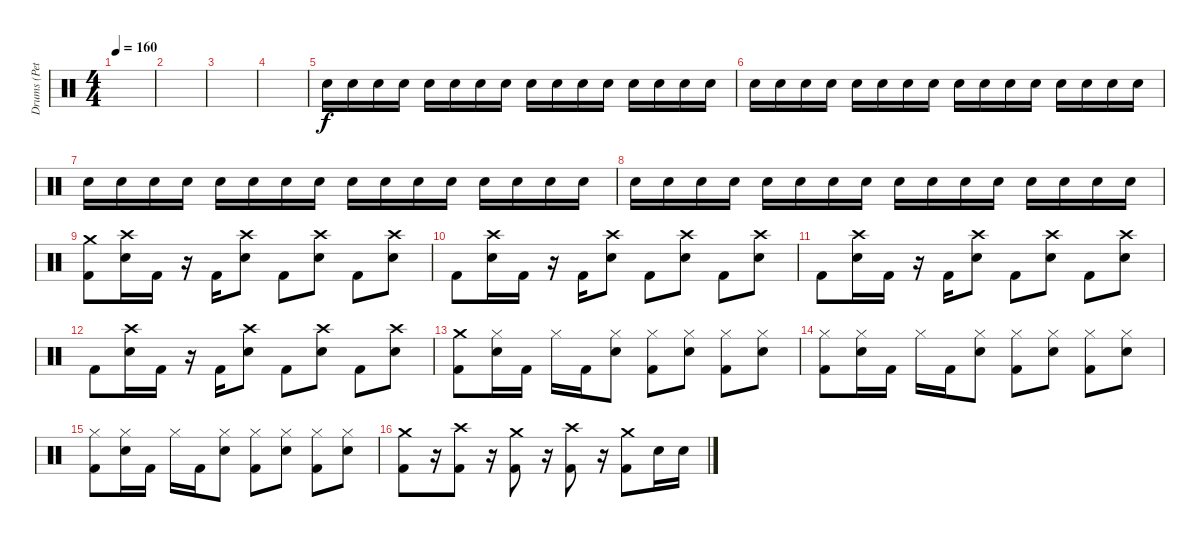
\track ("Drums (Pete)" "Drums (Pet") {instrument percussion}
\staff {score}
\articulation defaults
\ts (4 4)
\tempo 160
\clef neutral
\ks c
|
|
|
|
"Snare (hit) 2".16 "Snare (hit) 2".16 "Snare (hit) 2".16 "Snare (hit) 2".16 "Snare (hit) 2".16 "Snare (hit) 2".16 "Snare (hit) 2".16 "Snare (hit) 2".16 "Snare (hit) 2".16 "Snare (hit) 2".16 "Snare (hit) 2".16 "Snare (hit) 2".16 "Snare (hit) 2".16 "Snare (hit) 2".16 "Snare (hit) 2".16 "Snare (hit) 2".16 |
"Snare (hit) 2".16 "Snare (hit) 2".16 "Snare (hit) 2".16 "Snare (hit) 2".16 "Snare (hit) 2".16 "Snare (hit) 2".16 "Snare (hit) 2".16 "Snare (hit) 2".16 "Snare (hit) 2".16 "Snare (hit) 2".16 "Snare (hit) 2".16 "Snare (hit) 2".16 "Snare (hit) 2".16 "Snare (hit) 2".16 "Snare (hit) 2".16 "Snare (hit) 2".16 |
"Snare (hit) 2".16 "Snare (hit) 2".16 "Snare (hit) 2".16 "Snare (hit) 2".16 "Snare (hit) 2".16 "Snare (hit) 2".16 "Snare (hit) 2".16 "Snare (hit) 2".16 "Snare (hit) 2".16 "Snare (hit) 2".16 "Snare (hit) 2".16 "Snare (hit) 2".16 "Snare (hit) 2".16 "Snare (hit) 2".16 "Snare (hit) 2".16 "Snare (hit) 2".16 |
"Snare (hit) 2".16 "Snare (hit) 2".16 "Snare (hit) 2".16 "Snare (hit) 2".16 "Snare (hit) 2".16 "Snare (hit) 2".16 "Snare (hit) 2".16 "Snare (hit) 2".16 "Snare (hit) 2".16 "Snare (hit) 2".16 "Snare (hit) 2".16 "Snare (hit) 2".16 "Snare (hit) 2".16 "Snare (hit) 2".16 "Snare (hit) 2".16 "Snare (hit) 2".16 |
("Crash medium (hit)" "Kick (hit) 2").8 ("Crash high (hit)" "Snare (hit) 2").16 "Kick (hit) 2".16 r.16 "Kick (hit) 2".16 ("Crash high (hit)" "Snare (hit) 2").8 "Kick (hit) 2".8 ("Crash high (hit)" "Snare (hit) 2").8 "Kick (hit) 2".8 ("Crash high (hit)" "Snare (hit) 2").8 |
"Kick (hit) 2".8 ("Crash high (hit)" "Snare (hit) 2").16 "Kick (hit) 2".16 r.16 "Kick (hit) 2".16 ("Crash high (hit)" "Snare (hit) 2").8 "Kick (hit) 2".8 ("Crash high (hit)" "Snare (hit) 2").8 "Kick (hit) 2".8 ("Crash high (hit)" "Snare (hit) 2").8 |
"Kick (hit) 2".8 ("Crash high (hit)" "Snare (hit) 2").16 "Kick (hit) 2".16 r.16 "Kick (hit) 2".16 ("Crash high (hit)" "Snare (hit) 2").8 "Kick (hit) 2".8 ("Crash high (hit)" "Snare (hit) 2").8 "Kick (hit) 2".8 ("Crash high (hit)" "Snare (hit) 2").8 |
"Kick (hit) 2".8 ("Crash high (hit)" "Snare (hit) 2").16 "Kick (hit) 2".16 r.16 "Kick (hit) 2".16 ("Crash high (hit)" "Snare (hit) 2").8 "Kick (hit) 2".8 ("Crash high (hit)" "Snare (hit) 2").8 "Kick (hit) 2".8 ("Crash high (hit)" "Snare (hit) 2").8 |
("Crash medium (hit)" "Kick (hit) 2").8 ("Hi-Hat (closed)" "Snare (hit) 2").16 "Kick (hit) 2".16 "Hi-Hat (closed)".16 "Kick (hit) 2".16 ("Hi-Hat (closed)" "Snare (hit) 2").8 ("Hi-Hat (closed)" "Kick (hit) 2").8 ("Hi-Hat (closed)" "Snare (hit) 2").8 ("Hi-Hat (closed)" "Kick (hit) 2").8 ("Hi-Hat (closed)" "Snare (hit) 2").8 |
("Hi-Hat (closed)" "Kick (hit) 2").8 ("Hi-Hat (closed)" "Snare (hit) 2").16 "Kick (hit) 2".16 "Hi-Hat (closed)".16 "Kick (hit) 2".16 ("Hi-Hat (closed)" "Snare (hit) 2").8 ("Hi-Hat (closed)" "Kick (hit) 2").8 ("Hi-Hat (closed)" "Snare (hit) 2").8 ("Hi-Hat (closed)" "Kick (hit) 2").8 ("Hi-Hat (closed)" "Snare (hit) 2").8 |
("Hi-Hat (closed)" "Kick (hit) 2").8 ("Hi-Hat (closed)" "Snare (hit) 2").16 "Kick (hit) 2".16 "Hi-Hat (closed)".16 "Kick (hit) 2".16 ("Hi-Hat (closed)" "Snare (hit) 2").8 ("Hi-Hat (closed)" "Kick (hit) 2").8 ("Hi-Hat (closed)" "Snare (hit) 2").8 ("Hi-Hat (closed)" "Kick (hit) 2").8 ("Hi-Hat (closed)" "Snare (hit) 2").8 |
("Crash medium (hit)" "Kick (hit) 2").8 r.16 ("Crash high (hit)" "Kick (hit) 2").8 r.16 ("Crash medium (hit)" "Kick (hit) 2").8 r.16 ("Crash high (hit)" "Kick (hit) 2").8 r.16 ("Crash medium (hit)" "Kick (hit) 2").8 "Snare (hit) 2".16 "Snare (hit) 2".16
